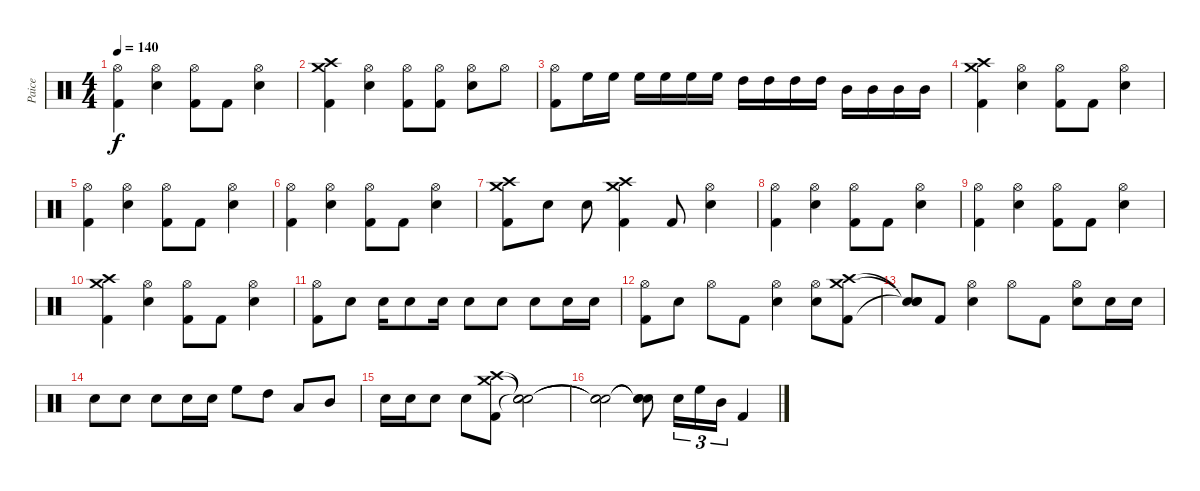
\track ("Paice" "Paice") {instrument percussion}
\staff {score}
\articulation defaults
\ts (4 4)
\tempo 140
\clef neutral
\ks c
("Hi-Hat (open)" "Kick (hit) 2").4{dy f} ("Hi-Hat (open)" "Electric Snare (hit)").4 ("Hi-Hat (open)" "Kick (hit) 2").8 "Kick (hit) 2".8 ("Hi-Hat (open)" "Electric Snare (hit)").4 |
("Crash high (hit)" "Crash medium (hit)" "Kick (hit) 2").4 ("Hi-Hat (open)" "Electric Snare (hit)").4 ("Hi-Hat (open)" "Kick (hit) 2").8 ("Hi-Hat (open)" "Kick (hit) 2").8 ("Hi-Hat (open)" "Electric Snare (hit)").8 "Hi-Hat (open)".8 |
("Hi-Hat (open)" "Kick (hit) 2").8 "High Floor Tom (hit)".16 "High Floor Tom (hit)".16 "High Floor Tom (hit)".16 "High Floor Tom (hit)".16 "High Floor Tom (hit)".16 "High Floor Tom (hit)".16 "High Tom (hit)".16 "High Tom (hit)".16 "High Tom (hit)".16 "High Tom (hit)".16 "Mid Tom (hit)".16 "Mid Tom (hit)".16 "Mid Tom (hit)".16 "Mid Tom (hit)".16 |
("Crash high (hit)" "Crash medium (hit)" "Kick (hit) 2").4 ("Hi-Hat (open)" "Electric Snare (hit)").4 ("Hi-Hat (open)" "Kick (hit) 2").8 "Kick (hit) 2".8 ("Hi-Hat (open)" "Electric Snare (hit)").4 |
("Hi-Hat (open)" "Kick (hit) 2").4 ("Hi-Hat (open)" "Electric Snare (hit)").4 ("Hi-Hat (open)" "Kick (hit) 2").8 "Kick (hit) 2".8 ("Hi-Hat (open)" "Electric Snare (hit)").4 |
("Hi-Hat (open)" "Kick (hit) 2").4 ("Hi-Hat (open)" "Electric Snare (hit)").4 ("Hi-Hat (open)" "Kick (hit) 2").8 "Kick (hit) 2".8 ("Hi-Hat (open)" "Electric Snare (hit)").4 |
("Crash high (hit)" "Crash medium (hit)" "Kick (hit) 2").8 "Electric Snare (hit)".8 "Electric Snare (hit)".8 ("Crash high (hit)" "Crash medium (hit)" "Kick (hit) 2").4 "Kick (hit) 2".8 ("Hi-Hat (open)" "Electric Snare (hit)").4 |
("Hi-Hat (open)" "Kick (hit) 2").4 ("Hi-Hat (open)" "Electric Snare (hit)").4 ("Hi-Hat (open)" "Kick (hit) 2").8 "Kick (hit) 2".8 ("Hi-Hat (open)" "Electric Snare (hit)").4 |
("Hi-Hat (open)" "Kick (hit) 2").4 ("Hi-Hat (open)" "Electric Snare (hit)").4 ("Hi-Hat (open)" "Kick (hit) 2").8 "Kick (hit) 2".8 ("Hi-Hat (open)" "Electric Snare (hit)").4 |
("Crash high (hit)" "Crash medium (hit)" "Kick (hit) 2").4 ("Hi-Hat (open)" "Electric Snare (hit)").4 ("Hi-Hat (open)" "Kick (hit) 2").8 "Kick (hit) 2".8 ("Hi-Hat (open)" "Electric Snare (hit)").4 |
("Hi-Hat (open)" "Kick (hit) 2").8 "Electric Snare (hit)".8 "Electric Snare (hit)".16 "Electric Snare (hit)".8 "Electric Snare (hit)".16 "Electric Snare (hit)".8 "Electric Snare (hit)".8 "Electric Snare (hit)".8 "Electric Snare (hit)".16 "Electric Snare (hit)".16 |
("Hi-Hat (open)" "Kick (hit) 2").8 "Electric Snare (hit)".8 "Hi-Hat (open)".8 "Kick (hit) 2".8 ("Hi-Hat (open)" "Electric Snare (hit)").4 ("Hi-Hat (open)" "Electric Snare (hit)").8 ("Crash high (hit)" "Crash medium (hit)" "Kick (hit) 2").8 |
("Snare (hit)"{t} "Snare (hit)"{t} "Snare (hit)"{t}).8 "Kick (hit) 2".8 ("Hi-Hat (open)" "Electric Snare (hit)").4 "Hi-Hat (open)".8 "Kick (hit) 2".8 ("Hi-Hat (open)" "Electric Snare (hit)").8 "Electric Snare (hit)".16 "Electric Snare (hit)".16 |
"Electric Snare (hit)".8 "Electric Snare (hit)".8 "Electric Snare (hit)".8 "Electric Snare (hit)".16 "Electric Snare (hit)".16 "High Floor Tom (hit)".8 "High Tom (hit)".8 "Low Tom (hit)".8 "Mid Tom (hit)".8 |
"Electric Snare (hit)".16 "Electric Snare (hit)".16 "Electric Snare (hit)".8 "Electric Snare (hit)".8 ("Crash high (hit)" "Crash medium (hit)" "Kick (hit) 2").8 ("Snare (hit)"{t} "Snare (hit)"{t} "Snare (hit)"{t}).2 |
("Snare (hit)"{t} "Snare (hit)"{t} "Snare (hit)"{t}).2 ("Snare (hit)"{t} "Snare (hit)"{t} "Snare (hit)"{t}).8 "Electric Snare (hit)".16{tu (3 2)} "High Floor Tom (hit)".16{tu (3 2)} "Mid Tom (hit)".16{tu (3 2)} "Kick (hit) 2".4
